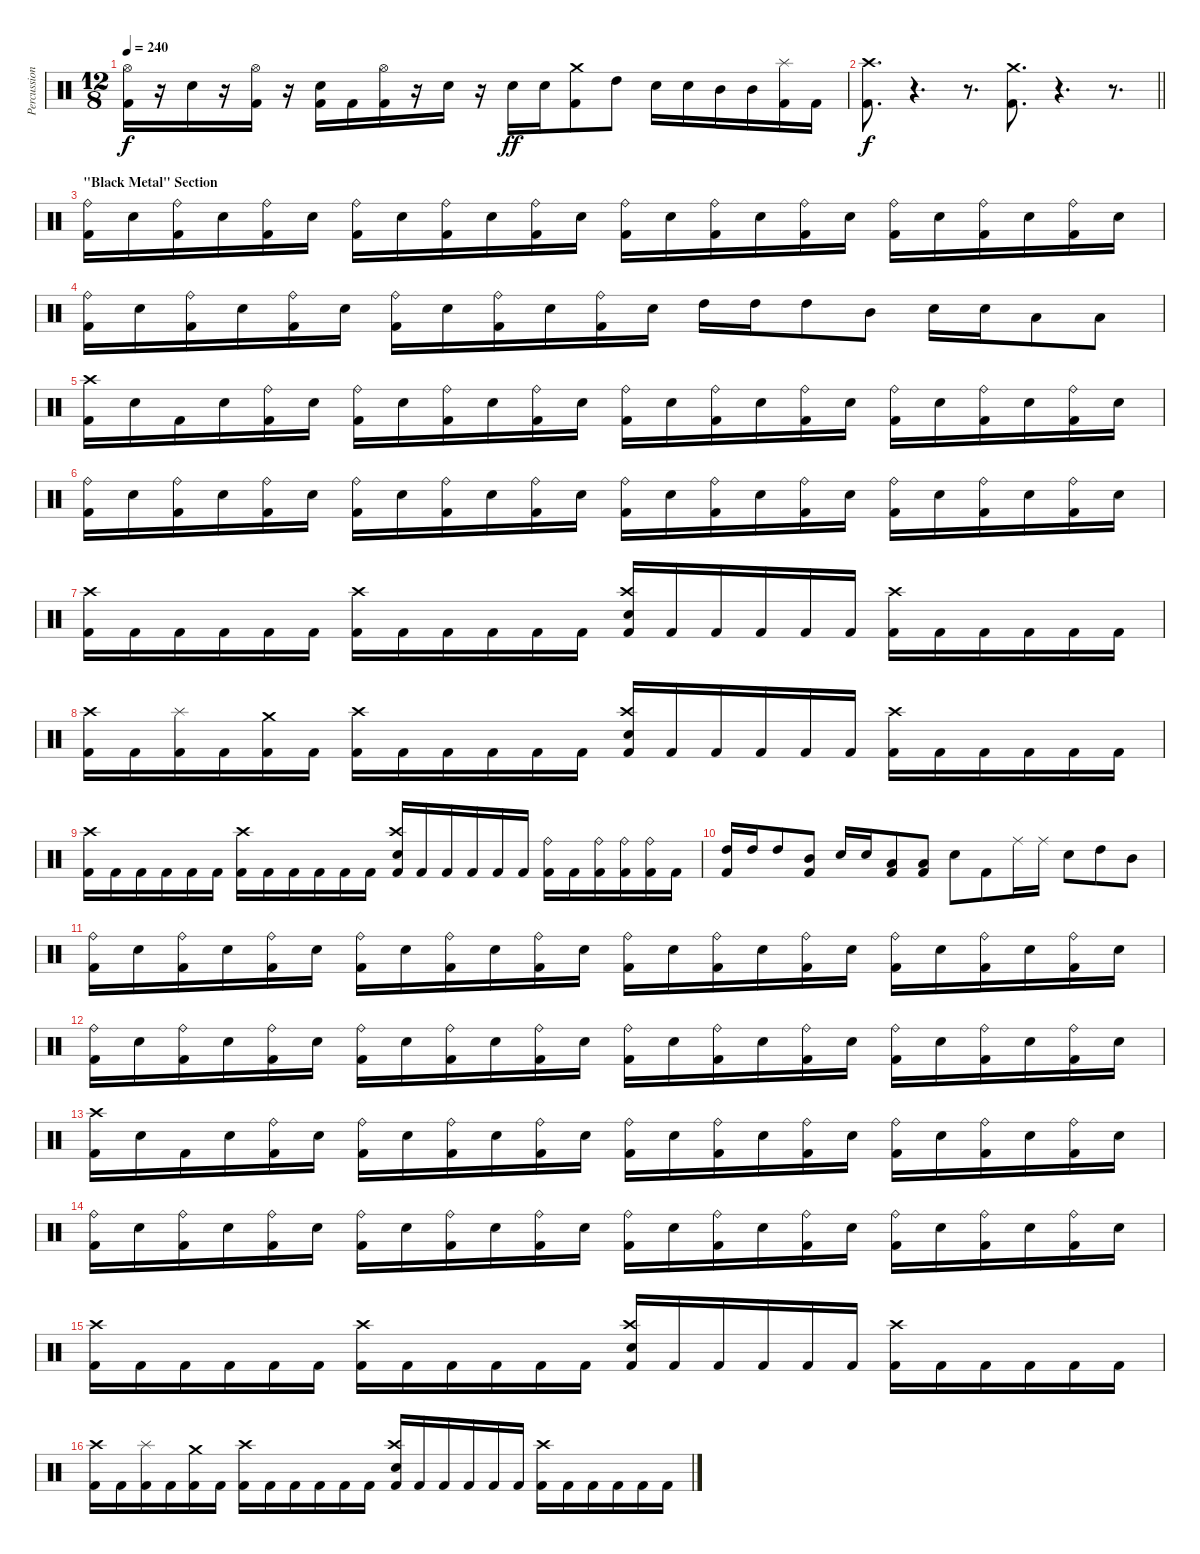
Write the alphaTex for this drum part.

\track ("Percussion" "Percussion") {instrument percussion}
\staff {score}
\articulation defaults
\ts (12 8)
\tempo 240
\clef neutral
\ks c
("Hi-Hat (open)" "Kick (hit) 2").16{dy f} r.16 "Snare (hit) 2".16 r.16 ("Hi-Hat (open)" "Kick (hit) 2").16 r.16 ("Snare (hit) 2" "Kick (hit) 2").16 "Kick (hit) 2".16 ("Hi-Hat (open)" "Kick (hit) 2").16 r.16 "Snare (hit) 2".16 r.16 "Snare (hit) 2".16{dy ff} "Snare (hit) 2".16 ("Crash medium (hit)" "Kick (hit) 2").8 "High Tom (hit)".8 "Snare (hit) 2".16 "Snare (hit) 2".16 "Mid Tom (hit)".16 "Mid Tom (hit)".16 ("Splash (hit)" "Kick (hit) 2").16 "Kick (hit) 2".16 |
\barLineRight lightlight
("Crash high (hit)" "Kick (hit) 2").8{d dy f} r.4{d volume 0} r.8{d} ("Crash medium (hit)" "Kick (hit) 2").8{d volume 13} r.4{d volume 0} r.8{d} |
\section ("" "\"Black Metal\" Section")
("Ride (bell)" "Kick (hit) 2").16{volume 13} "Snare (hit) 2".16 ("Ride (bell)" "Kick (hit) 2").16 "Snare (hit) 2".16 ("Ride (bell)" "Kick (hit) 2").16 "Snare (hit) 2".16 ("Ride (bell)" "Kick (hit) 2").16 "Snare (hit) 2".16 ("Ride (bell)" "Kick (hit) 2").16 "Snare (hit) 2".16 ("Ride (bell)" "Kick (hit) 2").16 "Snare (hit) 2".16 ("Ride (bell)" "Kick (hit) 2").16 "Snare (hit) 2".16 ("Ride (bell)" "Kick (hit) 2").16 "Snare (hit) 2".16 ("Ride (bell)" "Kick (hit) 2").16 "Snare (hit) 2".16 ("Ride (bell)" "Kick (hit) 2").16 "Snare (hit) 2".16 ("Ride (bell)" "Kick (hit) 2").16 "Snare (hit) 2".16 ("Ride (bell)" "Kick (hit) 2").16 "Snare (hit) 2".16 |
("Ride (bell)" "Kick (hit) 2").16 "Snare (hit) 2".16 ("Ride (bell)" "Kick (hit) 2").16 "Snare (hit) 2".16 ("Ride (bell)" "Kick (hit) 2").16 "Snare (hit) 2".16 ("Ride (bell)" "Kick (hit) 2").16 "Snare (hit) 2".16 ("Ride (bell)" "Kick (hit) 2").16 "Snare (hit) 2".16 ("Ride (bell)" "Kick (hit) 2").16 "Snare (hit) 2".16 "High Tom (hit)".16 "High Tom (hit)".16 "High Tom (hit)".8 "Mid Tom (hit)".8 "Snare (hit) 2".16 "Snare (hit) 2".16 "Low Tom (hit)".8 "Low Tom (hit)".8 |
("Crash high (hit)" "Kick (hit) 2").16 "Snare (hit) 2".16 "Kick (hit) 2".16 "Snare (hit) 2".16 ("Ride (bell)" "Kick (hit) 2").16 "Snare (hit) 2".16 ("Ride (bell)" "Kick (hit) 2").16 "Snare (hit) 2".16 ("Ride (bell)" "Kick (hit) 2").16 "Snare (hit) 2".16 ("Ride (bell)" "Kick (hit) 2").16 "Snare (hit) 2".16 ("Ride (bell)" "Kick (hit) 2").16 "Snare (hit) 2".16 ("Ride (bell)" "Kick (hit) 2").16 "Snare (hit) 2".16 ("Ride (bell)" "Kick (hit) 2").16 "Snare (hit) 2".16 ("Ride (bell)" "Kick (hit) 2").16 "Snare (hit) 2".16 ("Ride (bell)" "Kick (hit) 2").16 "Snare (hit) 2".16 ("Ride (bell)" "Kick (hit) 2").16 "Snare (hit) 2".16 |
("Ride (bell)" "Kick (hit) 2").16 "Snare (hit) 2".16 ("Ride (bell)" "Kick (hit) 2").16 "Snare (hit) 2".16 ("Ride (bell)" "Kick (hit) 2").16 "Snare (hit) 2".16 ("Ride (bell)" "Kick (hit) 2").16 "Snare (hit) 2".16 ("Ride (bell)" "Kick (hit) 2").16 "Electric Snare (hit)".16 ("Ride (bell)" "Kick (hit) 2").16 "Electric Snare (hit)".16 ("Ride (bell)" "Kick (hit) 2").16 "Electric Snare (hit)".16 ("Ride (bell)" "Kick (hit) 2").16 "Electric Snare (hit)".16 ("Ride (bell)" "Kick (hit) 2").16 "Electric Snare (hit)".16 ("Ride (bell)" "Kick (hit) 2").16 "Electric Snare (hit)".16 ("Ride (bell)" "Kick (hit) 2").16 "Electric Snare (hit)".16 ("Ride (bell)" "Kick (hit) 2").16 "Electric Snare (hit)".16 |
("Crash high (hit)" "Kick (hit) 2").16 "Kick (hit) 2".16 "Kick (hit) 2".16 "Kick (hit) 2".16 "Kick (hit) 2".16 "Kick (hit) 2".16 ("Crash high (hit)" "Kick (hit) 2").16 "Kick (hit) 2".16 "Kick (hit) 2".16 "Kick (hit) 2".16 "Kick (hit) 2".16 "Kick (hit) 2".16 ("Crash high (hit)" "Electric Snare (hit)" "Kick (hit) 2").16 "Kick (hit) 2".16 "Kick (hit) 2".16 "Kick (hit) 2".16 "Kick (hit) 2".16 "Kick (hit) 2".16 ("Crash high (hit)" "Kick (hit) 2").16 "Kick (hit) 2".16 "Kick (hit) 2".16 "Kick (hit) 2".16 "Kick (hit) 2".16 "Kick (hit) 2".16 |
("Crash high (hit)" "Kick (hit) 2").16 "Kick (hit) 2".16 ("Splash (hit)" "Kick (hit) 2").16 "Kick (hit) 2".16 ("Crash medium (hit)" "Kick (hit) 2").16 "Kick (hit) 2".16 ("Crash high (hit)" "Kick (hit) 2").16 "Kick (hit) 2".16 "Kick (hit) 2".16 "Kick (hit) 2".16 "Kick (hit) 2".16 "Kick (hit) 2".16 ("Crash high (hit)" "Electric Snare (hit)" "Kick (hit) 2").16 "Kick (hit) 2".16 "Kick (hit) 2".16 "Kick (hit) 2".16 "Kick (hit) 2".16 "Kick (hit) 2".16 ("Crash high (hit)" "Kick (hit) 2").16 "Kick (hit) 2".16 "Kick (hit) 2".16 "Kick (hit) 2".16 "Kick (hit) 2".16 "Kick (hit) 2".16 |
("Crash high (hit)" "Kick (hit) 2").16 "Kick (hit) 2".16 "Kick (hit) 2".16 "Kick (hit) 2".16 "Kick (hit) 2".16 "Kick (hit) 2".16 ("Crash high (hit)" "Kick (hit) 2").16 "Kick (hit) 2".16 "Kick (hit) 2".16 "Kick (hit) 2".16 "Kick (hit) 2".16 "Kick (hit) 2".16 ("Crash high (hit)" "Electric Snare (hit)" "Kick (hit) 2").16 "Kick (hit) 2".16 "Kick (hit) 2".16 "Kick (hit) 2".16 "Kick (hit) 2".16 "Kick (hit) 2".16 ("Ride (bell)" "Kick (hit) 2").16 "Kick (hit) 2".16 ("Ride (bell)" "Kick (hit) 2").16 ("Ride (bell)" "Kick (hit) 2").16 ("Ride (bell)" "Kick (hit) 2").16 "Kick (hit) 2".16 |
("High Tom (hit)" "Kick (hit) 2").16 "High Tom (hit)".16 "High Tom (hit)".8 ("Mid Tom (hit)" "Kick (hit) 2").8 "Electric Snare (hit)".16 "Electric Snare (hit)".16 ("Low Tom (hit)" "Kick (hit) 2").8 ("Low Tom (hit)" "Kick (hit) 2").8 "Electric Snare (hit)".8 "Kick (hit) 2".8 "Ride (middle)".16 "Ride (middle)".16 "Electric Snare (hit)".8 "High Tom (hit)".8 "Mid Tom (hit)".8 |
("Ride (bell)" "Kick (hit) 2").16{volume 13} "Electric Snare (hit)".16 ("Ride (bell)" "Kick (hit) 2").16 "Electric Snare (hit)".16 ("Ride (bell)" "Kick (hit) 2").16 "Electric Snare (hit)".16 ("Ride (bell)" "Kick (hit) 2").16 "Electric Snare (hit)".16 ("Ride (bell)" "Kick (hit) 2").16 "Electric Snare (hit)".16 ("Ride (bell)" "Kick (hit) 2").16 "Electric Snare (hit)".16 ("Ride (bell)" "Kick (hit) 2").16 "Electric Snare (hit)".16 ("Ride (bell)" "Kick (hit) 2").16 "Electric Snare (hit)".16 ("Ride (bell)" "Kick (hit) 2").16 "Electric Snare (hit)".16 ("Ride (bell)" "Kick (hit) 2").16 "Electric Snare (hit)".16 ("Ride (bell)" "Kick (hit) 2").16 "Electric Snare (hit)".16 ("Ride (bell)" "Kick (hit) 2").16 "Electric Snare (hit)".16 |
("Ride (bell)" "Kick (hit) 2").16 "Electric Snare (hit)".16 ("Ride (bell)" "Kick (hit) 2").16 "Electric Snare (hit)".16 ("Ride (bell)" "Kick (hit) 2").16 "Electric Snare (hit)".16 ("Ride (bell)" "Kick (hit) 2").16 "Electric Snare (hit)".16 ("Ride (bell)" "Kick (hit) 2").16 "Electric Snare (hit)".16 ("Ride (bell)" "Kick (hit) 2").16 "Electric Snare (hit)".16 ("Ride (bell)" "Kick (hit) 2").16 "Electric Snare (hit)".16 ("Ride (bell)" "Kick (hit) 2").16 "Electric Snare (hit)".16 ("Ride (bell)" "Kick (hit) 2").16 "Electric Snare (hit)".16 ("Ride (bell)" "Kick (hit) 2").16 "Electric Snare (hit)".16 ("Ride (bell)" "Kick (hit) 2").16 "Electric Snare (hit)".16 ("Ride (bell)" "Kick (hit) 2").16 "Electric Snare (hit)".16 |
("Crash high (hit)" "Kick (hit) 2").16 "Electric Snare (hit)".16 "Kick (hit) 2".16 "Electric Snare (hit)".16 ("Ride (bell)" "Kick (hit) 2").16 "Electric Snare (hit)".16 ("Ride (bell)" "Kick (hit) 2").16 "Electric Snare (hit)".16 ("Ride (bell)" "Kick (hit) 2").16 "Electric Snare (hit)".16 ("Ride (bell)" "Kick (hit) 2").16 "Electric Snare (hit)".16 ("Ride (bell)" "Kick (hit) 2").16 "Electric Snare (hit)".16 ("Ride (bell)" "Kick (hit) 2").16 "Electric Snare (hit)".16 ("Ride (bell)" "Kick (hit) 2").16 "Electric Snare (hit)".16 ("Ride (bell)" "Kick (hit) 2").16 "Electric Snare (hit)".16 ("Ride (bell)" "Kick (hit) 2").16 "Electric Snare (hit)".16 ("Ride (bell)" "Kick (hit) 2").16 "Electric Snare (hit)".16 |
("Ride (bell)" "Kick (hit) 2").16 "Electric Snare (hit)".16 ("Ride (bell)" "Kick (hit) 2").16 "Electric Snare (hit)".16 ("Ride (bell)" "Kick (hit) 2").16 "Electric Snare (hit)".16 ("Ride (bell)" "Kick (hit) 2").16 "Electric Snare (hit)".16 ("Ride (bell)" "Kick (hit) 2").16 "Electric Snare (hit)".16 ("Ride (bell)" "Kick (hit) 2").16 "Electric Snare (hit)".16 ("Ride (bell)" "Kick (hit) 2").16 "Electric Snare (hit)".16 ("Ride (bell)" "Kick (hit) 2").16 "Electric Snare (hit)".16 ("Ride (bell)" "Kick (hit) 2").16 "Electric Snare (hit)".16 ("Ride (bell)" "Kick (hit) 2").16 "Electric Snare (hit)".16 ("Ride (bell)" "Kick (hit) 2").16 "Electric Snare (hit)".16 ("Ride (bell)" "Kick (hit) 2").16 "Electric Snare (hit)".16 |
("Crash high (hit)" "Kick (hit) 2").16 "Kick (hit) 2".16 "Kick (hit) 2".16 "Kick (hit) 2".16 "Kick (hit) 2".16 "Kick (hit) 2".16 ("Crash high (hit)" "Kick (hit) 2").16 "Kick (hit) 2".16 "Kick (hit) 2".16 "Kick (hit) 2".16 "Kick (hit) 2".16 "Kick (hit) 2".16 ("Crash high (hit)" "Electric Snare (hit)" "Kick (hit) 2").16 "Kick (hit) 2".16 "Kick (hit) 2".16 "Kick (hit) 2".16 "Kick (hit) 2".16 "Kick (hit) 2".16 ("Crash high (hit)" "Kick (hit) 2").16 "Kick (hit) 2".16 "Kick (hit) 2".16 "Kick (hit) 2".16 "Kick (hit) 2".16 "Kick (hit) 2".16 |
("Crash high (hit)" "Kick (hit) 2").16 "Kick (hit) 2".16 ("Splash (hit)" "Kick (hit) 2").16 "Kick (hit) 2".16 ("Crash medium (hit)" "Kick (hit) 2").16 "Kick (hit) 2".16 ("Crash high (hit)" "Kick (hit) 2").16 "Kick (hit) 2".16 "Kick (hit) 2".16 "Kick (hit) 2".16 "Kick (hit) 2".16 "Kick (hit) 2".16 ("Crash high (hit)" "Electric Snare (hit)" "Kick (hit) 2").16 "Kick (hit) 2".16 "Kick (hit) 2".16 "Kick (hit) 2".16 "Kick (hit) 2".16 "Kick (hit) 2".16 ("Crash high (hit)" "Kick (hit) 2").16 "Kick (hit) 2".16 "Kick (hit) 2".16 "Kick (hit) 2".16 "Kick (hit) 2".16 "Kick (hit) 2".16
